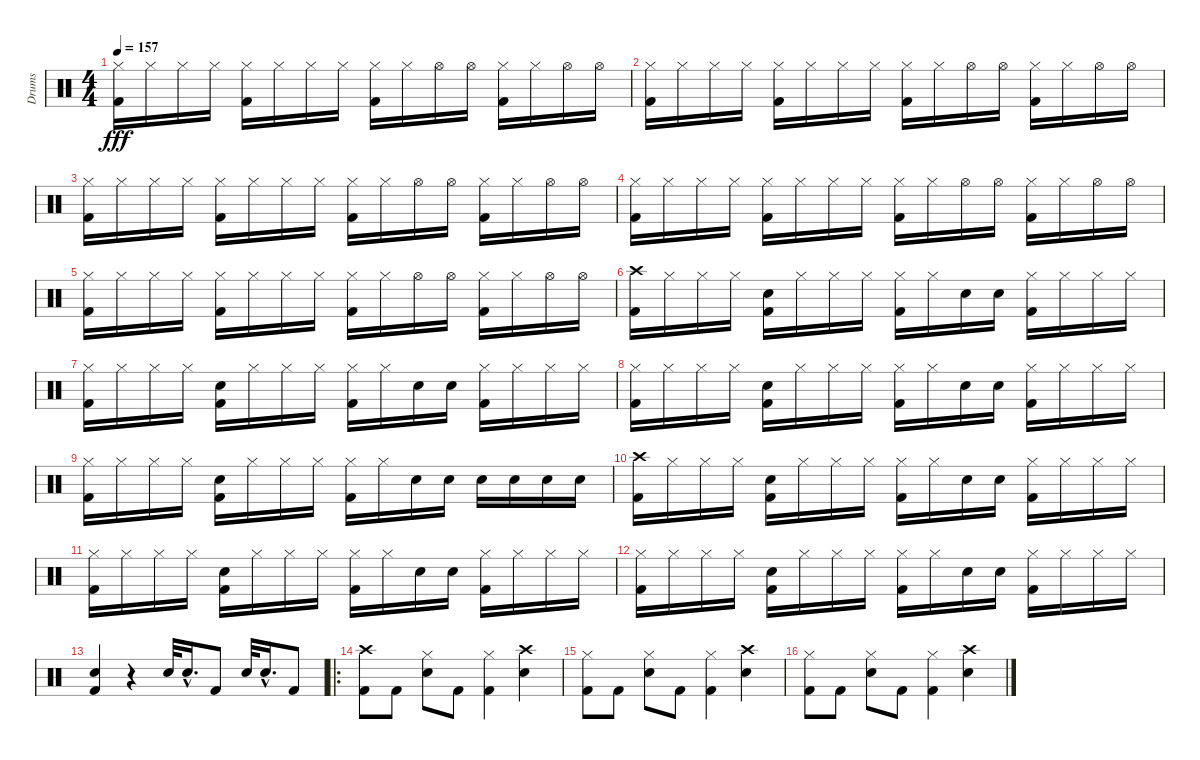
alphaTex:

\track ("Drums" "Drums") {instrument percussion}
\staff {score}
\articulation defaults
\ts (4 4)
\tempo 157
\clef neutral
\ks c
("Hi-Hat (closed)" "Kick (hit) 2").16{dy fff} "Hi-Hat (closed)".16 "Hi-Hat (closed)".16 "Hi-Hat (closed)".16 ("Hi-Hat (closed)" "Kick (hit) 2").16 "Hi-Hat (closed)".16 "Hi-Hat (closed)".16 "Hi-Hat (closed)".16 ("Hi-Hat (closed)" "Kick (hit) 2").16 "Hi-Hat (closed)".16 "Hi-Hat (open)".16 "Hi-Hat (open)".16 ("Hi-Hat (closed)" "Kick (hit) 2").16 "Hi-Hat (closed)".16 "Hi-Hat (open)".16 "Hi-Hat (open)".16 |
("Hi-Hat (closed)" "Kick (hit) 2").16 "Hi-Hat (closed)".16 "Hi-Hat (closed)".16 "Hi-Hat (closed)".16 ("Hi-Hat (closed)" "Kick (hit) 2").16 "Hi-Hat (closed)".16 "Hi-Hat (closed)".16 "Hi-Hat (closed)".16 ("Hi-Hat (closed)" "Kick (hit) 2").16 "Hi-Hat (closed)".16 "Hi-Hat (open)".16 "Hi-Hat (open)".16 ("Hi-Hat (closed)" "Kick (hit) 2").16 "Hi-Hat (closed)".16 "Hi-Hat (open)".16 "Hi-Hat (open)".16 |
("Hi-Hat (closed)" "Kick (hit) 2").16 "Hi-Hat (closed)".16 "Hi-Hat (closed)".16 "Hi-Hat (closed)".16 ("Hi-Hat (closed)" "Kick (hit) 2").16 "Hi-Hat (closed)".16 "Hi-Hat (closed)".16 "Hi-Hat (closed)".16 ("Hi-Hat (closed)" "Kick (hit) 2").16 "Hi-Hat (closed)".16 "Hi-Hat (open)".16 "Hi-Hat (open)".16 ("Hi-Hat (closed)" "Kick (hit) 2").16 "Hi-Hat (closed)".16 "Hi-Hat (open)".16 "Hi-Hat (open)".16 |
("Hi-Hat (closed)" "Kick (hit) 2").16 "Hi-Hat (closed)".16 "Hi-Hat (closed)".16 "Hi-Hat (closed)".16 ("Hi-Hat (closed)" "Kick (hit) 2").16 "Hi-Hat (closed)".16 "Hi-Hat (closed)".16 "Hi-Hat (closed)".16 ("Hi-Hat (closed)" "Kick (hit) 2").16 "Hi-Hat (closed)".16 "Hi-Hat (open)".16 "Hi-Hat (open)".16 ("Hi-Hat (closed)" "Kick (hit) 2").16 "Hi-Hat (closed)".16 "Hi-Hat (open)".16 "Hi-Hat (open)".16 |
("Hi-Hat (closed)" "Kick (hit) 2").16 "Hi-Hat (closed)".16 "Hi-Hat (closed)".16 "Hi-Hat (closed)".16 ("Hi-Hat (closed)" "Kick (hit) 2").16 "Hi-Hat (closed)".16 "Hi-Hat (closed)".16 "Hi-Hat (closed)".16 ("Hi-Hat (closed)" "Kick (hit) 2").16 "Hi-Hat (closed)".16 "Hi-Hat (open)".16 "Hi-Hat (open)".16 ("Hi-Hat (closed)" "Kick (hit) 2").16 "Hi-Hat (closed)".16 "Hi-Hat (open)".16 "Hi-Hat (open)".16 |
("Crash high (hit)" "Kick (hit) 2").16 "Hi-Hat (closed)".16 "Hi-Hat (closed)".16 "Hi-Hat (closed)".16 ("Snare (hit) 2" "Kick (hit) 2").16 "Hi-Hat (closed)".16 "Hi-Hat (closed)".16 "Hi-Hat (closed)".16 ("Hi-Hat (closed)" "Kick (hit) 2").16 "Hi-Hat (closed)".16 "Snare (hit) 2".16 "Snare (hit) 2".16 ("Hi-Hat (closed)" "Kick (hit) 2").16 "Hi-Hat (closed)".16 "Hi-Hat (closed)".16 "Hi-Hat (closed)".16 |
("Hi-Hat (closed)" "Kick (hit) 2").16 "Hi-Hat (closed)".16 "Hi-Hat (closed)".16 "Hi-Hat (closed)".16 ("Snare (hit) 2" "Kick (hit) 2").16 "Hi-Hat (closed)".16 "Hi-Hat (closed)".16 "Hi-Hat (closed)".16 ("Hi-Hat (closed)" "Kick (hit) 2").16 "Hi-Hat (closed)".16 "Snare (hit) 2".16 "Snare (hit) 2".16 ("Hi-Hat (closed)" "Kick (hit) 2").16 "Hi-Hat (closed)".16 "Hi-Hat (closed)".16 "Hi-Hat (closed)".16 |
("Hi-Hat (closed)" "Kick (hit) 2").16 "Hi-Hat (closed)".16 "Hi-Hat (closed)".16 "Hi-Hat (closed)".16 ("Snare (hit) 2" "Kick (hit) 2").16 "Hi-Hat (closed)".16 "Hi-Hat (closed)".16 "Hi-Hat (closed)".16 ("Hi-Hat (closed)" "Kick (hit) 2").16 "Hi-Hat (closed)".16 "Snare (hit) 2".16 "Snare (hit) 2".16 ("Hi-Hat (closed)" "Kick (hit) 2").16 "Hi-Hat (closed)".16 "Hi-Hat (closed)".16 "Hi-Hat (closed)".16 |
("Hi-Hat (closed)" "Kick (hit) 2").16 "Hi-Hat (closed)".16 "Hi-Hat (closed)".16 "Hi-Hat (closed)".16 ("Snare (hit) 2" "Kick (hit) 2").16 "Hi-Hat (closed)".16 "Hi-Hat (closed)".16 "Hi-Hat (closed)".16 ("Hi-Hat (closed)" "Kick (hit) 2").16 "Hi-Hat (closed)".16 "Snare (hit) 2".16 "Snare (hit) 2".16 "Snare (hit) 2".16 "Snare (hit) 2".16 "Snare (hit) 2".16 "Snare (hit) 2".16 |
("Crash high (hit)" "Kick (hit) 2").16 "Hi-Hat (closed)".16 "Hi-Hat (closed)".16 "Hi-Hat (closed)".16 ("Snare (hit) 2" "Kick (hit) 2").16 "Hi-Hat (closed)".16 "Hi-Hat (closed)".16 "Hi-Hat (closed)".16 ("Hi-Hat (closed)" "Kick (hit) 2").16 "Hi-Hat (closed)".16 "Snare (hit) 2".16 "Snare (hit) 2".16 ("Hi-Hat (closed)" "Kick (hit) 2").16 "Hi-Hat (closed)".16 "Hi-Hat (closed)".16 "Hi-Hat (closed)".16 |
("Hi-Hat (closed)" "Kick (hit) 2").16 "Hi-Hat (closed)".16 "Hi-Hat (closed)".16 "Hi-Hat (closed)".16 ("Snare (hit) 2" "Kick (hit) 2").16 "Hi-Hat (closed)".16 "Hi-Hat (closed)".16 "Hi-Hat (closed)".16 ("Hi-Hat (closed)" "Kick (hit) 2").16 "Hi-Hat (closed)".16 "Snare (hit) 2".16 "Snare (hit) 2".16 ("Hi-Hat (closed)" "Kick (hit) 2").16 "Hi-Hat (closed)".16 "Hi-Hat (closed)".16 "Hi-Hat (closed)".16 |
("Hi-Hat (closed)" "Kick (hit) 2").16 "Hi-Hat (closed)".16 "Hi-Hat (closed)".16 "Hi-Hat (closed)".16 ("Snare (hit) 2" "Kick (hit) 2").16 "Hi-Hat (closed)".16 "Hi-Hat (closed)".16 "Hi-Hat (closed)".16 ("Hi-Hat (closed)" "Kick (hit) 2").16 "Hi-Hat (closed)".16 "Snare (hit) 2".16 "Snare (hit) 2".16 ("Hi-Hat (closed)" "Kick (hit) 2").16 "Hi-Hat (closed)".16 "Hi-Hat (closed)".16 "Hi-Hat (closed)".16 |
("Snare (hit) 2" "Kick (hit) 2").4 r.4 "Snare (hit) 2".32 "Snare (hit) 2"{hac}.16{d} "Kick (hit) 2".8 "Snare (hit) 2".32 "Snare (hit) 2"{hac}.16{d} "Kick (hit) 2".8 |
\ro
("Crash high (hit)" "Kick (hit) 2").8 "Kick (hit) 2".8 ("Hi-Hat (closed)" "Snare (hit) 2").8 "Kick (hit) 2".8 ("Hi-Hat (closed)" "Kick (hit) 2").4 ("Crash high (hit)" "Snare (hit) 2").4 |
("Hi-Hat (closed)" "Kick (hit) 2").8 "Kick (hit) 2".8 ("Hi-Hat (closed)" "Snare (hit) 2").8 "Kick (hit) 2".8 ("Hi-Hat (closed)" "Kick (hit) 2").4 ("Crash high (hit)" "Snare (hit) 2").4 |
("Hi-Hat (closed)" "Kick (hit) 2").8 "Kick (hit) 2".8 ("Hi-Hat (closed)" "Snare (hit) 2").8 "Kick (hit) 2".8 ("Hi-Hat (closed)" "Kick (hit) 2").4 ("Crash high (hit)" "Snare (hit) 2").4
